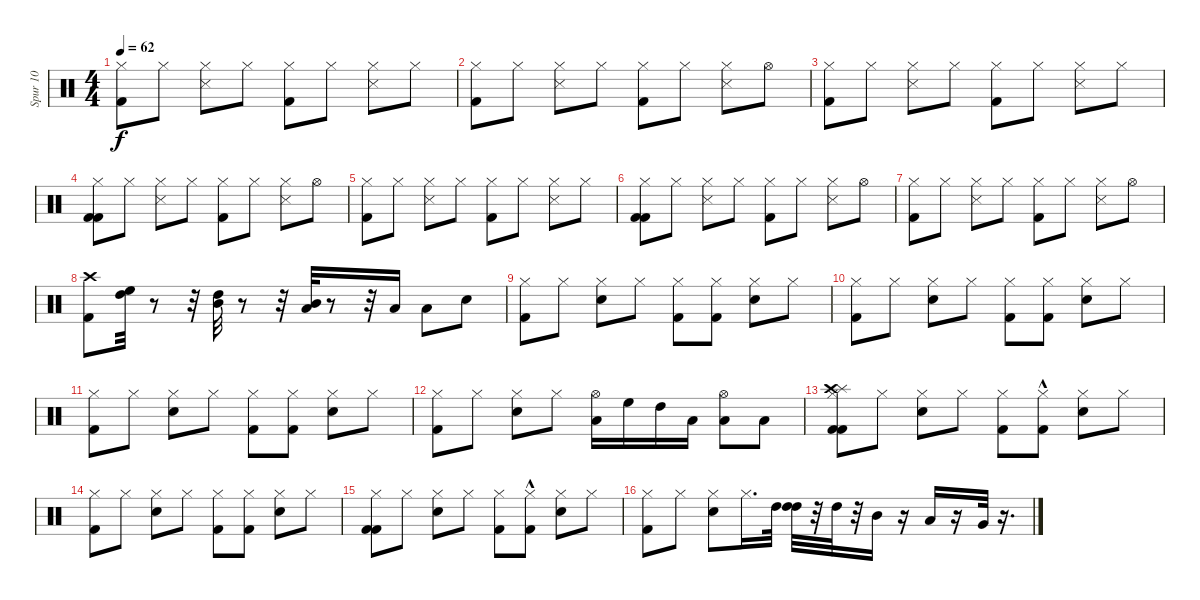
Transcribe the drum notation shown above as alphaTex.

\track ("Spur 10" "Spur 10") {instrument percussion}
\staff {score}
\articulation defaults
\ts (4 4)
\tempo 62
\clef neutral
\ks c
("Kick (hit) 2" "Hi-Hat (closed)").8{dy f} "Hi-Hat (closed)".8 ("Snare (side stick) 3" "Hi-Hat (closed)").8 "Hi-Hat (closed)".8 ("Kick (hit) 2" "Hi-Hat (closed)").8 "Hi-Hat (closed)".8 ("Snare (side stick) 3" "Hi-Hat (closed)").8 "Hi-Hat (closed)".8 |
("Kick (hit) 2" "Hi-Hat (closed)").8 "Hi-Hat (closed)".8 ("Snare (side stick) 3" "Hi-Hat (closed)").8 "Hi-Hat (closed)".8 ("Kick (hit) 2" "Hi-Hat (closed)").8 "Hi-Hat (closed)".8 ("Snare (side stick) 3" "Hi-Hat (closed)").8 "Hi-Hat (open)".8 |
("Kick (hit) 2" "Hi-Hat (closed)").8 "Hi-Hat (closed)".8 ("Snare (side stick) 3" "Hi-Hat (closed)").8 "Hi-Hat (closed)".8 ("Kick (hit) 2" "Hi-Hat (closed)").8 "Hi-Hat (closed)".8 ("Snare (side stick) 3" "Hi-Hat (closed)").8 "Hi-Hat (closed)".8 |
("Kick (hit) 2" "Hi-Hat (closed)" "Kick (hit) 2").8 "Hi-Hat (closed)".8 ("Snare (side stick) 3" "Hi-Hat (closed)").8 "Hi-Hat (closed)".8 ("Kick (hit) 2" "Hi-Hat (closed)").8 "Hi-Hat (closed)".8 ("Snare (side stick) 3" "Hi-Hat (closed)").8 "Hi-Hat (open)".8 |
("Kick (hit) 2" "Hi-Hat (closed)").8 "Hi-Hat (closed)".8 ("Snare (side stick) 3" "Hi-Hat (closed)").8 "Hi-Hat (closed)".8 ("Kick (hit) 2" "Hi-Hat (closed)").8 "Hi-Hat (closed)".8 ("Snare (side stick) 3" "Hi-Hat (closed)").8 "Hi-Hat (closed)".8 |
("Kick (hit) 2" "Hi-Hat (closed)" "Kick (hit) 2").8 "Hi-Hat (closed)".8 ("Snare (side stick) 3" "Hi-Hat (closed)").8 "Hi-Hat (closed)".8 ("Kick (hit) 2" "Hi-Hat (closed)").8 "Hi-Hat (closed)".8 ("Snare (side stick) 3" "Hi-Hat (closed)").8 "Hi-Hat (open)".8 |
("Kick (hit) 2" "Hi-Hat (closed)").8 "Hi-Hat (closed)".8 ("Snare (side stick) 3" "Hi-Hat (closed)").8 "Hi-Hat (closed)".8 ("Kick (hit) 2" "Hi-Hat (closed)").8 "Hi-Hat (closed)".8 ("Snare (side stick) 3" "Hi-Hat (closed)").8 "Hi-Hat (open)".8 |
("Crash high (hit)" "Kick (hit) 2").8 ("High Floor Tom (hit)" "High Tom (hit)").32 r.8 r.32 ("High Tom (hit)" "Mid Tom (hit)").32 r.8 r.32 ("Mid Tom (hit)" "Low Tom (hit)").32 r.8 r.32 "Low Floor Tom (hit)".16 "Low Floor Tom (hit)".8 "Snare (hit) 2".8 |
("Kick (hit) 2" "Hi-Hat (closed)").8 "Hi-Hat (closed)".8 ("Snare (hit) 2" "Hi-Hat (closed)").8 "Hi-Hat (closed)".8 ("Kick (hit) 2" "Hi-Hat (closed)").8 ("Kick (hit) 2" "Hi-Hat (closed)").8 ("Snare (hit) 2" "Hi-Hat (closed)").8 "Hi-Hat (closed)".8 |
("Kick (hit) 2" "Hi-Hat (closed)").8 "Hi-Hat (closed)".8 ("Snare (hit) 2" "Hi-Hat (closed)").8 "Hi-Hat (closed)".8 ("Kick (hit) 2" "Hi-Hat (closed)").8 ("Kick (hit) 2" "Hi-Hat (closed)").8 ("Snare (hit) 2" "Hi-Hat (closed)").8 "Hi-Hat (closed)".8 |
("Kick (hit) 2" "Hi-Hat (closed)").8 "Hi-Hat (closed)".8 ("Snare (hit) 2" "Hi-Hat (closed)").8 "Hi-Hat (closed)".8 ("Kick (hit) 2" "Hi-Hat (closed)").8 ("Kick (hit) 2" "Hi-Hat (closed)").8 ("Snare (hit) 2" "Hi-Hat (closed)").8 "Hi-Hat (closed)".8 |
("Kick (hit) 2" "Hi-Hat (closed)").8 "Hi-Hat (closed)".8 ("Snare (hit) 2" "Hi-Hat (closed)").8 "Hi-Hat (closed)".8 ("Hi-Hat (open)" "Low Tom (hit)").16 "High Floor Tom (hit)".16 "High Tom (hit)".16 "Low Tom (hit)".16 ("Hi-Hat (open)" "Low Floor Tom (hit)").8 "Low Floor Tom (hit)".8 |
("Kick (hit) 2" "Hi-Hat (closed)" "Splash (hit)" "Crash high (hit)" "Kick (hit) 2").8 "Hi-Hat (closed)".8 ("Snare (hit) 2" "Hi-Hat (closed)").8 "Hi-Hat (closed)".8 ("Kick (hit) 2" "Hi-Hat (closed)").8 ("Kick (hit) 2"{hac} "Hi-Hat (closed)").8 ("Snare (hit) 2" "Hi-Hat (closed)").8 "Hi-Hat (closed)".8 |
("Kick (hit) 2" "Hi-Hat (closed)").8 "Hi-Hat (closed)".8 ("Snare (hit) 2" "Hi-Hat (closed)").8 "Hi-Hat (closed)".8 ("Kick (hit) 2" "Hi-Hat (closed)").8 ("Kick (hit) 2" "Hi-Hat (closed)").8 ("Snare (hit) 2" "Hi-Hat (closed)").8 "Hi-Hat (closed)".8 |
("Kick (hit) 2" "Hi-Hat (closed)" "Kick (hit) 2").8 "Hi-Hat (closed)".8 ("Snare (hit) 2" "Hi-Hat (closed)").8 "Hi-Hat (closed)".8 ("Kick (hit) 2" "Hi-Hat (closed)").8 ("Kick (hit) 2"{hac} "Hi-Hat (closed)").8 ("Snare (hit) 2" "Hi-Hat (closed)").8 "Hi-Hat (closed)".8 |
("Kick (hit) 2" "Hi-Hat (closed)").8 "Hi-Hat (closed)".8 ("Snare (hit) 2" "Hi-Hat (closed)").8 "Hi-Hat (closed)".16{d} "High Tom (hit)".32 ("High Tom (hit)" "High Tom (hit)").32 r.32 "High Tom (hit)".32 r.32 "Mid Tom (hit)".16 r.16 "Low Tom (hit)".16 r.16 "Very Low Tom (hit)".32 r.16{d}
